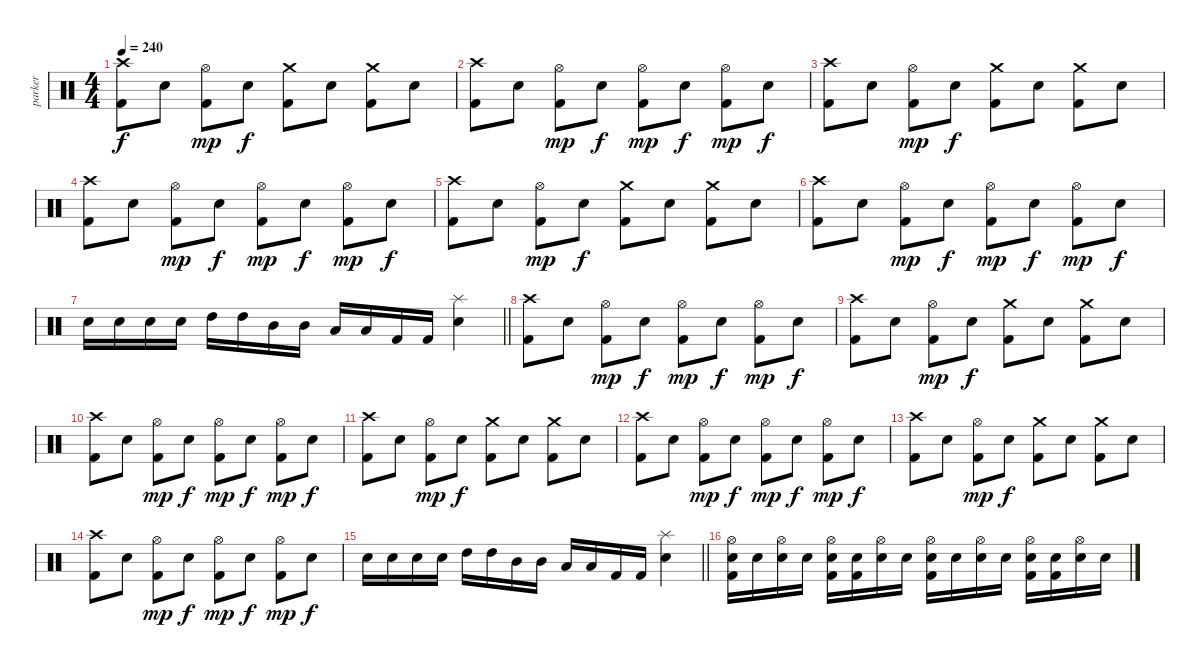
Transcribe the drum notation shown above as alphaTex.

\track ("parker" "parker") {instrument percussion}
\staff {score}
\articulation defaults
\ts (4 4)
\tempo 240
\clef neutral
\ks c
("Crash high (hit)" "Kick (hit) 2").8{dy f} "Electric Snare (hit)".8 ("Hi-Hat (open)" "Kick (hit) 2").8{dy mp} "Electric Snare (hit)".8{dy f} ("Crash medium (hit)" "Kick (hit) 2").8 "Electric Snare (hit)".8 ("Crash medium (hit)" "Kick (hit) 2").8 "Electric Snare (hit)".8 |
("Crash high (hit)" "Kick (hit) 2").8 "Electric Snare (hit)".8 ("Hi-Hat (open)" "Kick (hit) 2").8{dy mp} "Electric Snare (hit)".8{dy f} ("Hi-Hat (open)" "Kick (hit) 2").8{dy mp} "Electric Snare (hit)".8{dy f} ("Hi-Hat (open)" "Kick (hit) 2").8{dy mp} "Electric Snare (hit)".8{dy f} |
("Crash high (hit)" "Kick (hit) 2").8 "Electric Snare (hit)".8 ("Hi-Hat (open)" "Kick (hit) 2").8{dy mp} "Electric Snare (hit)".8{dy f} ("Crash medium (hit)" "Kick (hit) 2").8 "Electric Snare (hit)".8 ("Crash medium (hit)" "Kick (hit) 2").8 "Electric Snare (hit)".8 |
("Crash high (hit)" "Kick (hit) 2").8 "Electric Snare (hit)".8 ("Hi-Hat (open)" "Kick (hit) 2").8{dy mp} "Electric Snare (hit)".8{dy f} ("Hi-Hat (open)" "Kick (hit) 2").8{dy mp} "Electric Snare (hit)".8{dy f} ("Hi-Hat (open)" "Kick (hit) 2").8{dy mp} "Electric Snare (hit)".8{dy f} |
("Crash high (hit)" "Kick (hit) 2").8 "Electric Snare (hit)".8 ("Hi-Hat (open)" "Kick (hit) 2").8{dy mp} "Electric Snare (hit)".8{dy f} ("Crash medium (hit)" "Kick (hit) 2").8 "Electric Snare (hit)".8 ("Crash medium (hit)" "Kick (hit) 2").8 "Electric Snare (hit)".8 |
("Crash high (hit)" "Kick (hit) 2").8 "Electric Snare (hit)".8 ("Hi-Hat (open)" "Kick (hit) 2").8{dy mp} "Electric Snare (hit)".8{dy f} ("Hi-Hat (open)" "Kick (hit) 2").8{dy mp} "Electric Snare (hit)".8{dy f} ("Hi-Hat (open)" "Kick (hit) 2").8{dy mp} "Electric Snare (hit)".8{dy f} |
\barLineRight lightlight "Electric Snare (hit)".16 "Electric Snare (hit)".16 "Electric Snare (hit)".16 "Electric Snare (hit)".16 "High Tom (hit)".16 "High Tom (hit)".16 "Mid Tom (hit)".16 "Mid Tom (hit)".16 "Low Tom (hit)".16 "Low Tom (hit)".16 "Kick (hit) 2".16 "Kick (hit) 2".16
("Splash (hit)" "Electric Snare (hit)").4 |
("Crash high (hit)" "Kick (hit) 2").8 "Electric Snare (hit)".8 ("Hi-Hat (open)" "Kick (hit) 2").8{dy mp} "Electric Snare (hit)".8{dy f} ("Hi-Hat (open)" "Kick (hit) 2").8{dy mp} "Electric Snare (hit)".8{dy f} ("Hi-Hat (open)" "Kick (hit) 2").8{dy mp} "Electric Snare (hit)".8{dy f} |
("Crash high (hit)" "Kick (hit) 2").8 "Electric Snare (hit)".8 ("Hi-Hat (open)" "Kick (hit) 2").8{dy mp} "Electric Snare (hit)".8{dy f} ("Crash medium (hit)" "Kick (hit) 2").8 "Electric Snare (hit)".8 ("Crash medium (hit)" "Kick (hit) 2").8 "Electric Snare (hit)".8 |
("Crash high (hit)" "Kick (hit) 2").8 "Electric Snare (hit)".8 ("Hi-Hat (open)" "Kick (hit) 2").8{dy mp} "Electric Snare (hit)".8{dy f} ("Hi-Hat (open)" "Kick (hit) 2").8{dy mp} "Electric Snare (hit)".8{dy f} ("Hi-Hat (open)" "Kick (hit) 2").8{dy mp} "Electric Snare (hit)".8{dy f} |
("Crash high (hit)" "Kick (hit) 2").8 "Electric Snare (hit)".8 ("Hi-Hat (open)" "Kick (hit) 2").8{dy mp} "Electric Snare (hit)".8{dy f} ("Crash medium (hit)" "Kick (hit) 2").8 "Electric Snare (hit)".8 ("Crash medium (hit)" "Kick (hit) 2").8 "Electric Snare (hit)".8 |
("Crash high (hit)" "Kick (hit) 2").8 "Electric Snare (hit)".8 ("Hi-Hat (open)" "Kick (hit) 2").8{dy mp} "Electric Snare (hit)".8{dy f} ("Hi-Hat (open)" "Kick (hit) 2").8{dy mp} "Electric Snare (hit)".8{dy f} ("Hi-Hat (open)" "Kick (hit) 2").8{dy mp} "Electric Snare (hit)".8{dy f} |
("Crash high (hit)" "Kick (hit) 2").8 "Electric Snare (hit)".8 ("Hi-Hat (open)" "Kick (hit) 2").8{dy mp} "Electric Snare (hit)".8{dy f} ("Crash medium (hit)" "Kick (hit) 2").8 "Electric Snare (hit)".8 ("Crash medium (hit)" "Kick (hit) 2").8 "Electric Snare (hit)".8 |
("Crash high (hit)" "Kick (hit) 2").8 "Electric Snare (hit)".8 ("Hi-Hat (open)" "Kick (hit) 2").8{dy mp} "Electric Snare (hit)".8{dy f} ("Hi-Hat (open)" "Kick (hit) 2").8{dy mp} "Electric Snare (hit)".8{dy f} ("Hi-Hat (open)" "Kick (hit) 2").8{dy mp} "Electric Snare (hit)".8{dy f} |
\barLineRight lightlight "Electric Snare (hit)".16 "Electric Snare (hit)".16 "Electric Snare (hit)".16 "Electric Snare (hit)".16 "High Tom (hit)".16 "High Tom (hit)".16 "Mid Tom (hit)".16 "Mid Tom (hit)".16 "Low Tom (hit)".16 "Low Tom (hit)".16 "Kick (hit) 2".16 "Kick (hit) 2".16
("Splash (hit)" "Electric Snare (hit)").4 |
("Hi-Hat (open)" "Kick (hit) 2" "Snare (hit)").16 "Snare (hit)".16 ("Hi-Hat (open)" "Electric Snare (hit)").16 "Snare (hit)".16 ("Hi-Hat (open)" "Kick (hit) 2" "Snare (hit)").16 ("Kick (hit) 2" "Snare (hit)").16 ("Hi-Hat (open)" "Electric Snare (hit)").16 "Snare (hit)".16 ("Hi-Hat (open)" "Kick (hit) 2" "Snare (hit)").16 "Snare (hit)".16 ("Hi-Hat (open)" "Electric Snare (hit)").16 "Snare (hit)".16 ("Hi-Hat (open)" "Kick (hit) 2" "Snare (hit)").16 ("Kick (hit) 2" "Snare (hit)").16 ("Hi-Hat (open)" "Electric Snare (hit)").16 "Snare (hit)".16
